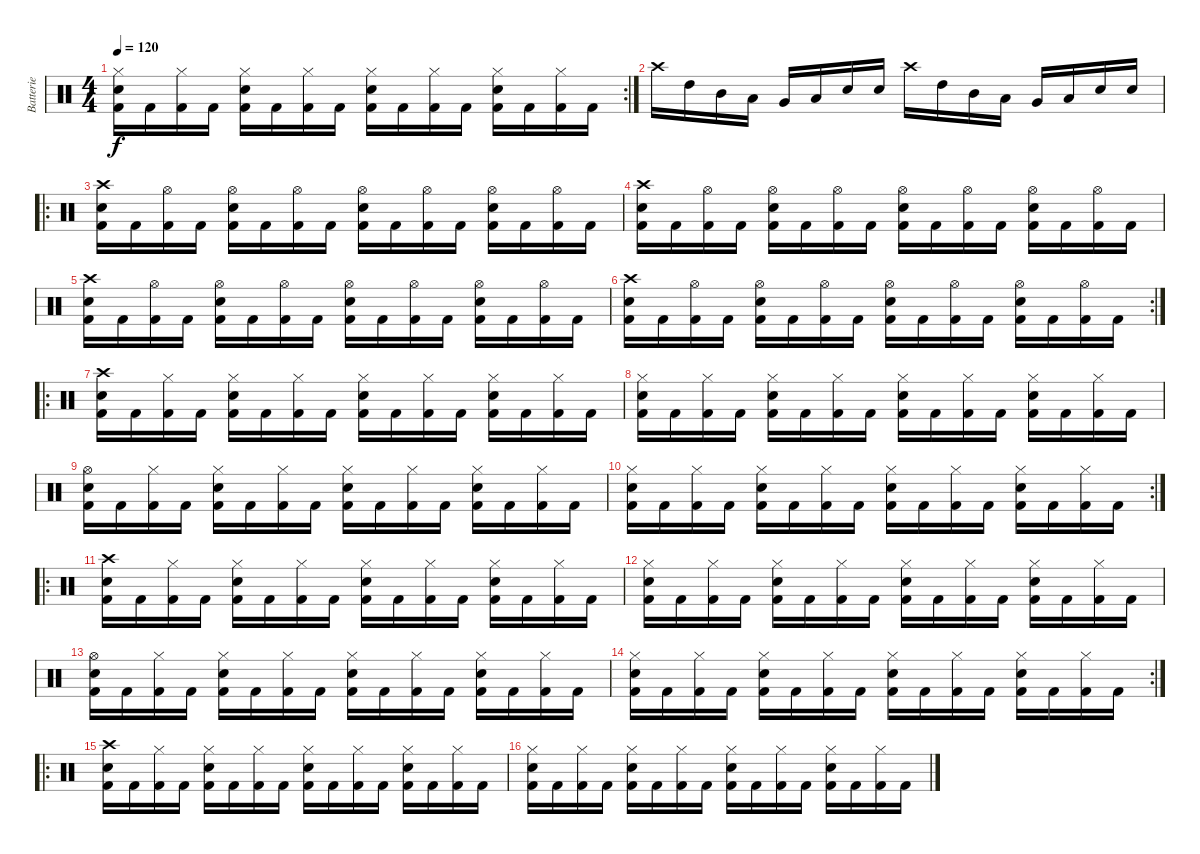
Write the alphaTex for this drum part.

\track ("Batterie" "Batterie") {instrument percussion}
\staff {score}
\articulation defaults
\rc 2
\ts (4 4)
\tempo 120
\clef neutral
\ks c
("Hi-Hat (closed)" "Electric Snare (hit)" "Kick (hit) 2").16{dy f} "Kick (hit) 2".16 ("Hi-Hat (closed)" "Kick (hit) 2").16 "Kick (hit) 2".16 ("Hi-Hat (closed)" "Electric Snare (hit)" "Kick (hit) 2").16 "Kick (hit) 2".16 ("Hi-Hat (closed)" "Kick (hit) 2").16 "Kick (hit) 2".16 ("Hi-Hat (closed)" "Electric Snare (hit)" "Kick (hit) 2").16 "Kick (hit) 2".16 ("Hi-Hat (closed)" "Kick (hit) 2").16 "Kick (hit) 2".16 ("Hi-Hat (closed)" "Electric Snare (hit)" "Kick (hit) 2").16 "Kick (hit) 2".16 ("Hi-Hat (closed)" "Kick (hit) 2").16 "Kick (hit) 2".16 |
"Crash high (hit)".16 "High Tom (hit)".16 "Mid Tom (hit)".16 "Low Tom (hit)".16 "Very Low Tom (hit)".16 "Low Floor Tom (hit)".16 "Electric Snare (hit)".16 "Electric Snare (hit)".16 "Crash high (hit)".16 "High Tom (hit)".16 "Mid Tom (hit)".16 "Low Tom (hit)".16 "Very Low Tom (hit)".16 "Low Floor Tom (hit)".16 "Electric Snare (hit)".16 "Electric Snare (hit)".16 |
\ro
("Crash high (hit)" "Electric Snare (hit)" "Kick (hit) 2").16 "Kick (hit) 2".16 ("Hi-Hat (open)" "Kick (hit) 2").16 "Kick (hit) 2".16 ("Hi-Hat (open)" "Electric Snare (hit)" "Kick (hit) 2").16 "Kick (hit) 2".16 ("Hi-Hat (open)" "Kick (hit) 2").16 "Kick (hit) 2".16 ("Hi-Hat (open)" "Electric Snare (hit)" "Kick (hit) 2").16 "Kick (hit) 2".16 ("Hi-Hat (open)" "Kick (hit) 2").16 "Kick (hit) 2".16 ("Hi-Hat (open)" "Electric Snare (hit)" "Kick (hit) 2").16 "Kick (hit) 2".16 ("Hi-Hat (open)" "Kick (hit) 2").16 "Kick (hit) 2".16 |
("Crash high (hit)" "Electric Snare (hit)" "Kick (hit) 2").16 "Kick (hit) 2".16 ("Hi-Hat (open)" "Kick (hit) 2").16 "Kick (hit) 2".16 ("Hi-Hat (open)" "Electric Snare (hit)" "Kick (hit) 2").16 "Kick (hit) 2".16 ("Hi-Hat (open)" "Kick (hit) 2").16 "Kick (hit) 2".16 ("Hi-Hat (open)" "Electric Snare (hit)" "Kick (hit) 2").16 "Kick (hit) 2".16 ("Hi-Hat (open)" "Kick (hit) 2").16 "Kick (hit) 2".16 ("Hi-Hat (open)" "Electric Snare (hit)" "Kick (hit) 2").16 "Kick (hit) 2".16 ("Hi-Hat (open)" "Kick (hit) 2").16 "Kick (hit) 2".16 |
("Crash high (hit)" "Electric Snare (hit)" "Kick (hit) 2").16 "Kick (hit) 2".16 ("Hi-Hat (open)" "Kick (hit) 2").16 "Kick (hit) 2".16 ("Hi-Hat (open)" "Electric Snare (hit)" "Kick (hit) 2").16 "Kick (hit) 2".16 ("Hi-Hat (open)" "Kick (hit) 2").16 "Kick (hit) 2".16 ("Hi-Hat (open)" "Electric Snare (hit)" "Kick (hit) 2").16 "Kick (hit) 2".16 ("Hi-Hat (open)" "Kick (hit) 2").16 "Kick (hit) 2".16 ("Hi-Hat (open)" "Electric Snare (hit)" "Kick (hit) 2").16 "Kick (hit) 2".16 ("Hi-Hat (open)" "Kick (hit) 2").16 "Kick (hit) 2".16 |
\rc 2
("Crash high (hit)" "Electric Snare (hit)" "Kick (hit) 2").16 "Kick (hit) 2".16 ("Hi-Hat (open)" "Kick (hit) 2").16 "Kick (hit) 2".16 ("Hi-Hat (open)" "Electric Snare (hit)" "Kick (hit) 2").16 "Kick (hit) 2".16 ("Hi-Hat (open)" "Kick (hit) 2").16 "Kick (hit) 2".16 ("Hi-Hat (open)" "Electric Snare (hit)" "Kick (hit) 2").16 "Kick (hit) 2".16 ("Hi-Hat (open)" "Kick (hit) 2").16 "Kick (hit) 2".16 ("Hi-Hat (open)" "Electric Snare (hit)" "Kick (hit) 2").16 "Kick (hit) 2".16 ("Hi-Hat (open)" "Kick (hit) 2").16 "Kick (hit) 2".16 |
\ro
("Crash high (hit)" "Electric Snare (hit)" "Kick (hit) 2").16 "Kick (hit) 2".16 ("Hi-Hat (closed)" "Kick (hit) 2").16 "Kick (hit) 2".16 ("Hi-Hat (closed)" "Electric Snare (hit)" "Kick (hit) 2").16 "Kick (hit) 2".16 ("Hi-Hat (closed)" "Kick (hit) 2").16 "Kick (hit) 2".16 ("Hi-Hat (closed)" "Electric Snare (hit)" "Kick (hit) 2").16 "Kick (hit) 2".16 ("Hi-Hat (closed)" "Kick (hit) 2").16 "Kick (hit) 2".16 ("Hi-Hat (closed)" "Electric Snare (hit)" "Kick (hit) 2").16 "Kick (hit) 2".16 ("Hi-Hat (closed)" "Kick (hit) 2").16 "Kick (hit) 2".16 |
("Hi-Hat (closed)" "Electric Snare (hit)" "Kick (hit) 2").16 "Kick (hit) 2".16 ("Hi-Hat (closed)" "Kick (hit) 2").16 "Kick (hit) 2".16 ("Hi-Hat (closed)" "Electric Snare (hit)" "Kick (hit) 2").16 "Kick (hit) 2".16 ("Hi-Hat (closed)" "Kick (hit) 2").16 "Kick (hit) 2".16 ("Hi-Hat (closed)" "Electric Snare (hit)" "Kick (hit) 2").16 "Kick (hit) 2".16 ("Hi-Hat (closed)" "Kick (hit) 2").16 "Kick (hit) 2".16 ("Hi-Hat (closed)" "Electric Snare (hit)" "Kick (hit) 2").16 "Kick (hit) 2".16 ("Hi-Hat (closed)" "Kick (hit) 2").16 "Kick (hit) 2".16 |
("Hi-Hat (open)" "Electric Snare (hit)" "Kick (hit) 2").16 "Kick (hit) 2".16 ("Hi-Hat (closed)" "Kick (hit) 2").16 "Kick (hit) 2".16 ("Hi-Hat (closed)" "Electric Snare (hit)" "Kick (hit) 2").16 "Kick (hit) 2".16 ("Hi-Hat (closed)" "Kick (hit) 2").16 "Kick (hit) 2".16 ("Hi-Hat (closed)" "Electric Snare (hit)" "Kick (hit) 2").16 "Kick (hit) 2".16 ("Hi-Hat (closed)" "Kick (hit) 2").16 "Kick (hit) 2".16 ("Hi-Hat (closed)" "Electric Snare (hit)" "Kick (hit) 2").16 "Kick (hit) 2".16 ("Hi-Hat (closed)" "Kick (hit) 2").16 "Kick (hit) 2".16 |
\rc 2
("Hi-Hat (closed)" "Electric Snare (hit)" "Kick (hit) 2").16 "Kick (hit) 2".16 ("Hi-Hat (closed)" "Kick (hit) 2").16 "Kick (hit) 2".16 ("Hi-Hat (closed)" "Electric Snare (hit)" "Kick (hit) 2").16 "Kick (hit) 2".16 ("Hi-Hat (closed)" "Kick (hit) 2").16 "Kick (hit) 2".16 ("Hi-Hat (closed)" "Electric Snare (hit)" "Kick (hit) 2").16 "Kick (hit) 2".16 ("Hi-Hat (closed)" "Kick (hit) 2").16 "Kick (hit) 2".16 ("Hi-Hat (closed)" "Electric Snare (hit)" "Kick (hit) 2").16 "Kick (hit) 2".16 ("Hi-Hat (closed)" "Kick (hit) 2").16 "Kick (hit) 2".16 |
\ro
("Crash high (hit)" "Electric Snare (hit)" "Kick (hit) 2").16 "Kick (hit) 2".16 ("Hi-Hat (closed)" "Kick (hit) 2").16 "Kick (hit) 2".16 ("Hi-Hat (closed)" "Electric Snare (hit)" "Kick (hit) 2").16 "Kick (hit) 2".16 ("Hi-Hat (closed)" "Kick (hit) 2").16 "Kick (hit) 2".16 ("Hi-Hat (closed)" "Electric Snare (hit)" "Kick (hit) 2").16 "Kick (hit) 2".16 ("Hi-Hat (closed)" "Kick (hit) 2").16 "Kick (hit) 2".16 ("Hi-Hat (closed)" "Electric Snare (hit)" "Kick (hit) 2").16 "Kick (hit) 2".16 ("Hi-Hat (closed)" "Kick (hit) 2").16 "Kick (hit) 2".16 |
("Hi-Hat (closed)" "Electric Snare (hit)" "Kick (hit) 2").16 "Kick (hit) 2".16 ("Hi-Hat (closed)" "Kick (hit) 2").16 "Kick (hit) 2".16 ("Hi-Hat (closed)" "Electric Snare (hit)" "Kick (hit) 2").16 "Kick (hit) 2".16 ("Hi-Hat (closed)" "Kick (hit) 2").16 "Kick (hit) 2".16 ("Hi-Hat (closed)" "Electric Snare (hit)" "Kick (hit) 2").16 "Kick (hit) 2".16 ("Hi-Hat (closed)" "Kick (hit) 2").16 "Kick (hit) 2".16 ("Hi-Hat (closed)" "Electric Snare (hit)" "Kick (hit) 2").16 "Kick (hit) 2".16 ("Hi-Hat (closed)" "Kick (hit) 2").16 "Kick (hit) 2".16 |
("Hi-Hat (open)" "Electric Snare (hit)" "Kick (hit) 2").16 "Kick (hit) 2".16 ("Hi-Hat (closed)" "Kick (hit) 2").16 "Kick (hit) 2".16 ("Hi-Hat (closed)" "Electric Snare (hit)" "Kick (hit) 2").16 "Kick (hit) 2".16 ("Hi-Hat (closed)" "Kick (hit) 2").16 "Kick (hit) 2".16 ("Hi-Hat (closed)" "Electric Snare (hit)" "Kick (hit) 2").16 "Kick (hit) 2".16 ("Hi-Hat (closed)" "Kick (hit) 2").16 "Kick (hit) 2".16 ("Hi-Hat (closed)" "Electric Snare (hit)" "Kick (hit) 2").16 "Kick (hit) 2".16 ("Hi-Hat (closed)" "Kick (hit) 2").16 "Kick (hit) 2".16 |
\rc 2
("Hi-Hat (closed)" "Electric Snare (hit)" "Kick (hit) 2").16 "Kick (hit) 2".16 ("Hi-Hat (closed)" "Kick (hit) 2").16 "Kick (hit) 2".16 ("Hi-Hat (closed)" "Electric Snare (hit)" "Kick (hit) 2").16 "Kick (hit) 2".16 ("Hi-Hat (closed)" "Kick (hit) 2").16 "Kick (hit) 2".16 ("Hi-Hat (closed)" "Electric Snare (hit)" "Kick (hit) 2").16 "Kick (hit) 2".16 ("Hi-Hat (closed)" "Kick (hit) 2").16 "Kick (hit) 2".16 ("Hi-Hat (closed)" "Electric Snare (hit)" "Kick (hit) 2").16 "Kick (hit) 2".16 ("Hi-Hat (closed)" "Kick (hit) 2").16 "Kick (hit) 2".16 |
\ro
("Crash high (hit)" "Electric Snare (hit)" "Kick (hit) 2").16 "Kick (hit) 2".16 ("Hi-Hat (closed)" "Kick (hit) 2").16 "Kick (hit) 2".16 ("Hi-Hat (closed)" "Electric Snare (hit)" "Kick (hit) 2").16 "Kick (hit) 2".16 ("Hi-Hat (closed)" "Kick (hit) 2").16 "Kick (hit) 2".16 ("Hi-Hat (closed)" "Electric Snare (hit)" "Kick (hit) 2").16 "Kick (hit) 2".16 ("Hi-Hat (closed)" "Kick (hit) 2").16 "Kick (hit) 2".16 ("Hi-Hat (closed)" "Electric Snare (hit)" "Kick (hit) 2").16 "Kick (hit) 2".16 ("Hi-Hat (closed)" "Kick (hit) 2").16 "Kick (hit) 2".16 |
("Hi-Hat (closed)" "Electric Snare (hit)" "Kick (hit) 2").16 "Kick (hit) 2".16 ("Hi-Hat (closed)" "Kick (hit) 2").16 "Kick (hit) 2".16 ("Hi-Hat (closed)" "Electric Snare (hit)" "Kick (hit) 2").16 "Kick (hit) 2".16 ("Hi-Hat (closed)" "Kick (hit) 2").16 "Kick (hit) 2".16 ("Hi-Hat (closed)" "Electric Snare (hit)" "Kick (hit) 2").16 "Kick (hit) 2".16 ("Hi-Hat (closed)" "Kick (hit) 2").16 "Kick (hit) 2".16 ("Hi-Hat (closed)" "Electric Snare (hit)" "Kick (hit) 2").16 "Kick (hit) 2".16 ("Hi-Hat (closed)" "Kick (hit) 2").16 "Kick (hit) 2".16
